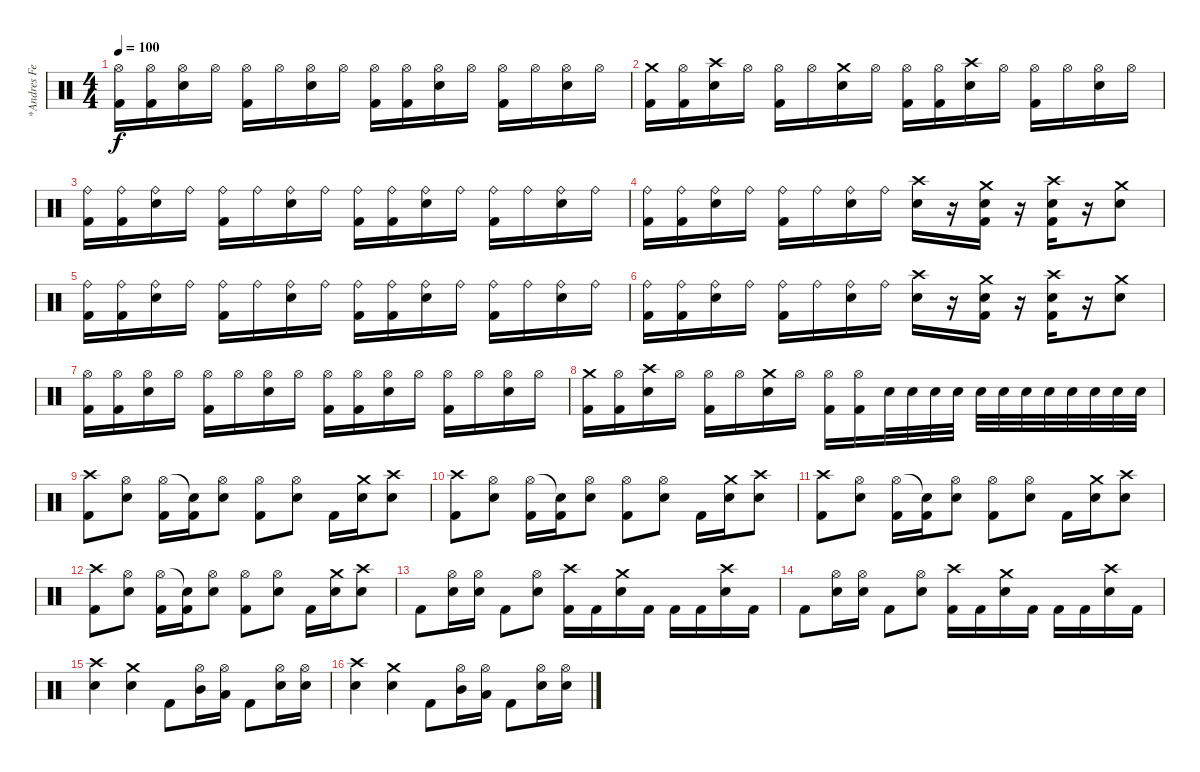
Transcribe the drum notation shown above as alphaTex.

\track ("*Andres Felipe" "*Andres Fe") {instrument percussion}
\staff {score}
\articulation defaults
\ts (4 4)
\tempo 100
\clef neutral
\ks c
("Hi-Hat (open)" "Kick (hit) 2").16{dy f} ("Hi-Hat (open)" "Kick (hit) 2").16 ("Hi-Hat (open)" "Electric Snare (hit)").16 "Hi-Hat (open)".16 ("Hi-Hat (open)" "Kick (hit) 2").16 "Hi-Hat (open)".16 ("Hi-Hat (open)" "Electric Snare (hit)").16 "Hi-Hat (open)".16 ("Hi-Hat (open)" "Kick (hit) 2").16 ("Hi-Hat (open)" "Kick (hit) 2").16 ("Hi-Hat (open)" "Electric Snare (hit)").16 "Hi-Hat (open)".16 ("Hi-Hat (open)" "Kick (hit) 2").16 "Hi-Hat (open)".16 ("Hi-Hat (open)" "Electric Snare (hit)").16 "Hi-Hat (open)".16 |
("Crash medium (hit)" "Kick (hit) 2").16 ("Hi-Hat (open)" "Kick (hit) 2").16 ("Crash high (hit)" "Electric Snare (hit)").16 "Hi-Hat (open)".16 ("Hi-Hat (open)" "Kick (hit) 2").16 "Hi-Hat (open)".16 ("Crash medium (hit)" "Electric Snare (hit)").16 "Hi-Hat (open)".16 ("Hi-Hat (open)" "Kick (hit) 2").16 ("Hi-Hat (open)" "Kick (hit) 2").16 ("Crash high (hit)" "Electric Snare (hit)").16 "Hi-Hat (open)".16 ("Hi-Hat (open)" "Kick (hit) 2").16 "Hi-Hat (open)".16 ("Hi-Hat (open)" "Electric Snare (hit)").16 "Hi-Hat (open)".16 |
("Ride (bell)" "Kick (hit) 2").16 ("Ride (bell)" "Kick (hit) 2").16 ("Ride (bell)" "Electric Snare (hit)").16 "Ride (bell)".16 ("Ride (bell)" "Kick (hit) 2").16 "Ride (bell)".16 ("Ride (bell)" "Electric Snare (hit)").16 "Ride (bell)".16 ("Ride (bell)" "Kick (hit) 2").16 ("Ride (bell)" "Kick (hit) 2").16 ("Ride (bell)" "Electric Snare (hit)").16 "Ride (bell)".16 ("Ride (bell)" "Kick (hit) 2").16 "Ride (bell)".16 ("Ride (bell)" "Electric Snare (hit)").16 "Ride (bell)".16 |
("Ride (bell)" "Kick (hit) 2").16 ("Ride (bell)" "Kick (hit) 2").16 ("Ride (bell)" "Electric Snare (hit)").16 "Ride (bell)".16 ("Ride (bell)" "Kick (hit) 2").16 "Ride (bell)".16 ("Ride (bell)" "Electric Snare (hit)").16 "Ride (bell)".16 ("Crash high (hit)" "Electric Snare (hit)").16 r.16 ("Crash medium (hit)" "Electric Snare (hit)" "Kick (hit) 2").16 r.16 ("Crash high (hit)" "Electric Snare (hit)" "Kick (hit) 2").16 r.16 ("Crash medium (hit)" "Electric Snare (hit)").8 |
("Ride (bell)" "Kick (hit) 2").16 ("Ride (bell)" "Kick (hit) 2").16 ("Ride (bell)" "Electric Snare (hit)").16 "Ride (bell)".16 ("Ride (bell)" "Kick (hit) 2").16 "Ride (bell)".16 ("Ride (bell)" "Electric Snare (hit)").16 "Ride (bell)".16 ("Ride (bell)" "Kick (hit) 2").16 ("Ride (bell)" "Kick (hit) 2").16 ("Ride (bell)" "Electric Snare (hit)").16 "Ride (bell)".16 ("Ride (bell)" "Kick (hit) 2").16 "Ride (bell)".16 ("Ride (bell)" "Electric Snare (hit)").16 "Ride (bell)".16 |
("Ride (bell)" "Kick (hit) 2").16 ("Ride (bell)" "Kick (hit) 2").16 ("Ride (bell)" "Electric Snare (hit)").16 "Ride (bell)".16 ("Ride (bell)" "Kick (hit) 2").16 "Ride (bell)".16 ("Ride (bell)" "Electric Snare (hit)").16 "Ride (bell)".16 ("Crash high (hit)" "Electric Snare (hit)").16 r.16 ("Crash medium (hit)" "Electric Snare (hit)" "Kick (hit) 2").16 r.16 ("Crash high (hit)" "Electric Snare (hit)" "Kick (hit) 2").16 r.16 ("Crash medium (hit)" "Electric Snare (hit)").8 |
("Hi-Hat (open)" "Kick (hit) 2").16 ("Hi-Hat (open)" "Kick (hit) 2").16 ("Hi-Hat (open)" "Electric Snare (hit)").16 "Hi-Hat (open)".16 ("Hi-Hat (open)" "Kick (hit) 2").16 "Hi-Hat (open)".16 ("Hi-Hat (open)" "Electric Snare (hit)").16 "Hi-Hat (open)".16 ("Hi-Hat (open)" "Kick (hit) 2").16 ("Hi-Hat (open)" "Kick (hit) 2").16 ("Hi-Hat (open)" "Electric Snare (hit)").16 "Hi-Hat (open)".16 ("Hi-Hat (open)" "Kick (hit) 2").16 "Hi-Hat (open)".16 ("Hi-Hat (open)" "Electric Snare (hit)").16 "Hi-Hat (open)".16 |
("Crash medium (hit)" "Kick (hit) 2").16 ("Hi-Hat (open)" "Kick (hit) 2").16 ("Crash high (hit)" "Electric Snare (hit)").16 "Hi-Hat (open)".16 ("Hi-Hat (open)" "Kick (hit) 2").16 "Hi-Hat (open)".16 ("Crash medium (hit)" "Electric Snare (hit)").16 "Hi-Hat (open)".16 ("Hi-Hat (open)" "Kick (hit) 2").16 ("Hi-Hat (open)" "Kick (hit) 2").16 "Electric Snare (hit)".32 "Electric Snare (hit)".32 "Electric Snare (hit)".32 "Electric Snare (hit)".32 "Electric Snare (hit)".32 "Electric Snare (hit)".32 "Electric Snare (hit)".32 "Electric Snare (hit)".32 "Electric Snare (hit)".32 "Electric Snare (hit)".32 "Electric Snare (hit)".32 "Electric Snare (hit)".32 |
("Crash high (hit)" "Kick (hit) 2").8 ("Hi-Hat (open)" "Electric Snare (hit)").8 ("Hi-Hat (open)" "Kick (hit) 2").16 ("Snare (hit)"{t} "Kick (hit) 2").16 ("Hi-Hat (open)" "Electric Snare (hit)").8 ("Hi-Hat (open)" "Kick (hit) 2").8 ("Hi-Hat (open)" "Electric Snare (hit)").8 "Kick (hit) 2".16 ("Crash medium (hit)" "Electric Snare (hit)").16 ("Crash high (hit)" "Electric Snare (hit)").8 |
("Crash high (hit)" "Kick (hit) 2").8 ("Hi-Hat (open)" "Electric Snare (hit)").8 ("Hi-Hat (open)" "Kick (hit) 2").16 ("Snare (hit)"{t} "Kick (hit) 2").16 ("Hi-Hat (open)" "Electric Snare (hit)").8 ("Hi-Hat (open)" "Kick (hit) 2").8 ("Hi-Hat (open)" "Electric Snare (hit)").8 "Kick (hit) 2".16 ("Crash medium (hit)" "Electric Snare (hit)").16 ("Crash high (hit)" "Electric Snare (hit)").8 |
("Crash high (hit)" "Kick (hit) 2").8 ("Hi-Hat (open)" "Electric Snare (hit)").8 ("Hi-Hat (open)" "Kick (hit) 2").16 ("Snare (hit)"{t} "Kick (hit) 2").16 ("Hi-Hat (open)" "Electric Snare (hit)").8 ("Hi-Hat (open)" "Kick (hit) 2").8 ("Hi-Hat (open)" "Electric Snare (hit)").8 "Kick (hit) 2".16 ("Crash medium (hit)" "Electric Snare (hit)").16 ("Crash high (hit)" "Electric Snare (hit)").8 |
("Crash high (hit)" "Kick (hit) 2").8 ("Hi-Hat (open)" "Electric Snare (hit)").8 ("Hi-Hat (open)" "Kick (hit) 2").16 ("Snare (hit)"{t} "Kick (hit) 2").16 ("Hi-Hat (open)" "Electric Snare (hit)").8 ("Hi-Hat (open)" "Kick (hit) 2").8 ("Hi-Hat (open)" "Electric Snare (hit)").8 "Kick (hit) 2".16 ("Crash medium (hit)" "Electric Snare (hit)").16 ("Crash high (hit)" "Electric Snare (hit)").8 |
"Kick (hit) 2".8 ("Hi-Hat (open)" "Electric Snare (hit)").16 ("Hi-Hat (open)" "Electric Snare (hit)").16 "Kick (hit) 2".8 ("Hi-Hat (open)" "Electric Snare (hit)").8 ("Crash high (hit)" "Kick (hit) 2").16 "Kick (hit) 2".16 ("Crash medium (hit)" "Electric Snare (hit)").16 "Kick (hit) 2".16 "Kick (hit) 2".16 "Kick (hit) 2".16 ("Crash high (hit)" "Electric Snare (hit)").16 "Kick (hit) 2".16 |
"Kick (hit) 2".8 ("Hi-Hat (open)" "Electric Snare (hit)").16 ("Hi-Hat (open)" "Electric Snare (hit)").16 "Kick (hit) 2".8 ("Hi-Hat (open)" "Electric Snare (hit)").8 ("Crash high (hit)" "Kick (hit) 2").16 "Kick (hit) 2".16 ("Crash medium (hit)" "Electric Snare (hit)").16 "Kick (hit) 2".16 "Kick (hit) 2".16 "Kick (hit) 2".16 ("Crash high (hit)" "Electric Snare (hit)").16 "Kick (hit) 2".16 |
("Crash high (hit)" "Electric Snare (hit)").4 ("Crash medium (hit)" "Electric Snare (hit)").4 "Kick (hit) 2".8 ("Hi-Hat (open)" "Mid Tom (hit)").16 ("Hi-Hat (open)" "Low Tom (hit)").16 "Kick (hit) 2".8 ("Hi-Hat (open)" "Electric Snare (hit)").16 ("Hi-Hat (open)" "Electric Snare (hit)").16 |
("Crash high (hit)" "Electric Snare (hit)").4 ("Crash medium (hit)" "Electric Snare (hit)").4 "Kick (hit) 2".8 ("Hi-Hat (open)" "Mid Tom (hit)").16 ("Hi-Hat (open)" "Low Tom (hit)").16 "Kick (hit) 2".8 ("Hi-Hat (open)" "Electric Snare (hit)").16 ("Hi-Hat (open)" "Electric Snare (hit)").16
